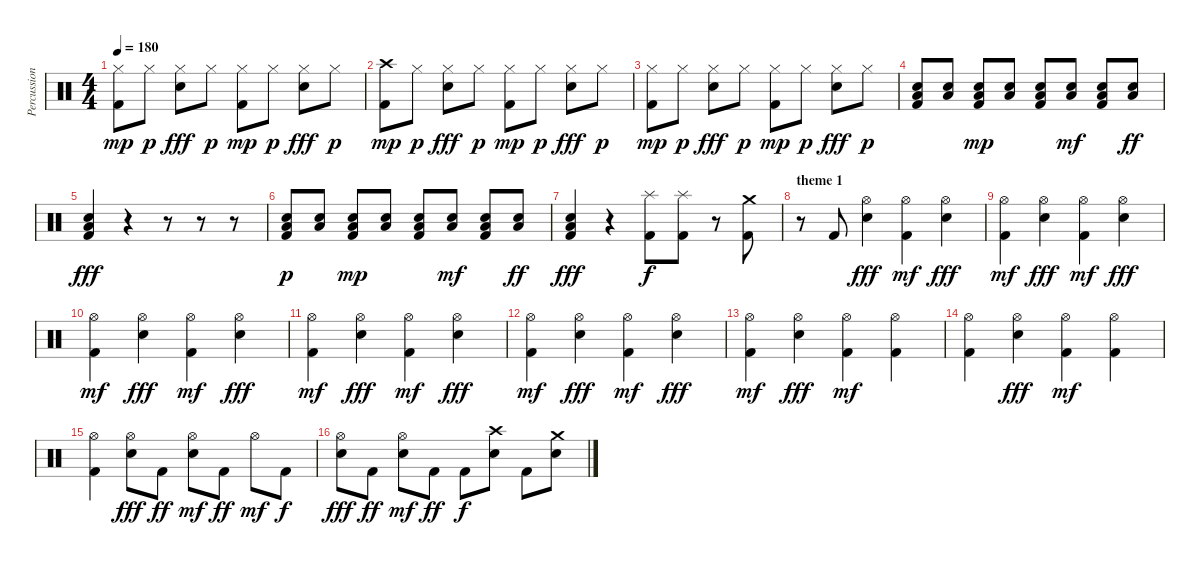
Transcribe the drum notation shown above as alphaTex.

\track ("Percussions" "Percussion") {instrument percussion}
\staff {score}
\articulation defaults
\ts (4 4)
\tempo 180
\clef neutral
\ks c
("Hi-Hat (closed)" "Kick (hit) 2").8{dy mp} "Hi-Hat (closed)".8{dy p} ("Hi-Hat (closed)" "Electric Snare (hit)").8{dy fff} "Hi-Hat (closed)".8{dy p} ("Hi-Hat (closed)" "Kick (hit) 2").8{dy mp} "Hi-Hat (closed)".8{dy p} ("Hi-Hat (closed)" "Electric Snare (hit)").8{dy fff} "Hi-Hat (closed)".8{dy p} |
("Crash high (hit)" "Kick (hit) 2").8{dy mp} "Hi-Hat (closed)".8{dy p} ("Hi-Hat (closed)" "Electric Snare (hit)").8{dy fff} "Hi-Hat (closed)".8{dy p} ("Hi-Hat (closed)" "Kick (hit) 2").8{dy mp} "Hi-Hat (closed)".8{dy p} ("Hi-Hat (closed)" "Electric Snare (hit)").8{dy fff} "Hi-Hat (closed)".8{dy p} |
("Hi-Hat (closed)" "Kick (hit) 2").8{dy mp} "Hi-Hat (closed)".8{dy p} ("Hi-Hat (closed)" "Electric Snare (hit)").8{dy fff} "Hi-Hat (closed)".8{dy p} ("Hi-Hat (closed)" "Kick (hit) 2").8{dy mp} "Hi-Hat (closed)".8{dy p} ("Hi-Hat (closed)" "Electric Snare (hit)").8{dy fff} "Hi-Hat (closed)".8{dy p} |
("Low Tom (hit)" "Electric Snare (hit)" "Kick (hit) 2").8 ("Low Tom (hit)" "Electric Snare (hit)").8 ("Low Tom (hit)" "Electric Snare (hit)" "Kick (hit) 2").8{dy mp} ("Low Tom (hit)" "Electric Snare (hit)").8 ("Low Tom (hit)" "Electric Snare (hit)" "Kick (hit) 2").8 ("Low Tom (hit)" "Electric Snare (hit)").8{dy mf} ("Low Tom (hit)" "Electric Snare (hit)" "Kick (hit) 2").8 ("Low Tom (hit)" "Electric Snare (hit)").8{dy ff} |
("Low Tom (hit)" "Electric Snare (hit)" "Kick (hit) 2").4{dy fff} r.4 r.8 r.8 r.8 |
("Low Tom (hit)" "Electric Snare (hit)" "Kick (hit) 2").8{dy p} ("Low Tom (hit)" "Electric Snare (hit)").8 ("Low Tom (hit)" "Electric Snare (hit)" "Kick (hit) 2").8{dy mp} ("Low Tom (hit)" "Electric Snare (hit)").8 ("Low Tom (hit)" "Electric Snare (hit)" "Kick (hit) 2").8 ("Low Tom (hit)" "Electric Snare (hit)").8{dy mf} ("Low Tom (hit)" "Electric Snare (hit)" "Kick (hit) 2").8 ("Low Tom (hit)" "Electric Snare (hit)").8{dy ff} |
("Low Tom (hit)" "Electric Snare (hit)" "Kick (hit) 2").4{dy fff} r.4 ("Splash (hit)" "Kick (hit) 2").8{dy f} ("Splash (hit)" "Kick (hit) 2").8 r.8 ("Crash medium (hit)" "Kick (hit) 2").8 |
\section ("" "theme 1")
r.8 "Kick (hit) 2".8 ("Hi-Hat (open)" "Electric Snare (hit)").4{dy fff} ("Hi-Hat (open)" "Kick (hit) 2").4{dy mf} ("Hi-Hat (open)" "Electric Snare (hit)").4{dy fff} |
("Hi-Hat (open)" "Kick (hit) 2").4{dy mf} ("Hi-Hat (open)" "Electric Snare (hit)").4{dy fff} ("Hi-Hat (open)" "Kick (hit) 2").4{dy mf} ("Hi-Hat (open)" "Electric Snare (hit)").4{dy fff} |
("Hi-Hat (open)" "Kick (hit) 2").4{dy mf} ("Hi-Hat (open)" "Electric Snare (hit)").4{dy fff} ("Hi-Hat (open)" "Kick (hit) 2").4{dy mf} ("Hi-Hat (open)" "Electric Snare (hit)").4{dy fff} |
("Hi-Hat (open)" "Kick (hit) 2").4{dy mf} ("Hi-Hat (open)" "Electric Snare (hit)").4{dy fff} ("Hi-Hat (open)" "Kick (hit) 2").4{dy mf} ("Hi-Hat (open)" "Electric Snare (hit)").4{dy fff} |
("Hi-Hat (open)" "Kick (hit) 2").4{dy mf} ("Hi-Hat (open)" "Electric Snare (hit)").4{dy fff} ("Hi-Hat (open)" "Kick (hit) 2").4{dy mf} ("Hi-Hat (open)" "Electric Snare (hit)").4{dy fff} |
("Hi-Hat (open)" "Kick (hit) 2").4{dy mf} ("Hi-Hat (open)" "Electric Snare (hit)").4{dy fff} ("Hi-Hat (open)" "Kick (hit) 2").4{dy mf} ("Hi-Hat (open)" "Kick (hit) 2").4 |
("Hi-Hat (open)" "Kick (hit) 2").4 ("Hi-Hat (open)" "Electric Snare (hit)").4{dy fff} ("Hi-Hat (open)" "Kick (hit) 2").4{dy mf} ("Hi-Hat (open)" "Kick (hit) 2").4 |
("Hi-Hat (open)" "Kick (hit) 2").4 ("Hi-Hat (open)" "Electric Snare (hit)").8{dy fff} "Kick (hit) 2".8{dy ff} ("Hi-Hat (open)" "Electric Snare (hit)").8{dy mf} "Kick (hit) 2".8{dy ff} "Hi-Hat (open)".8{dy mf} "Kick (hit) 2".8{dy f} |
("Hi-Hat (open)" "Electric Snare (hit)").8{dy fff} "Kick (hit) 2".8{dy ff} ("Hi-Hat (open)" "Electric Snare (hit)").8{dy mf} "Kick (hit) 2".8{dy ff} "Kick (hit) 2".8{dy f} ("Crash high (hit)" "Electric Snare (hit)").8 "Kick (hit) 2".8 ("Crash medium (hit)" "Electric Snare (hit)").8
